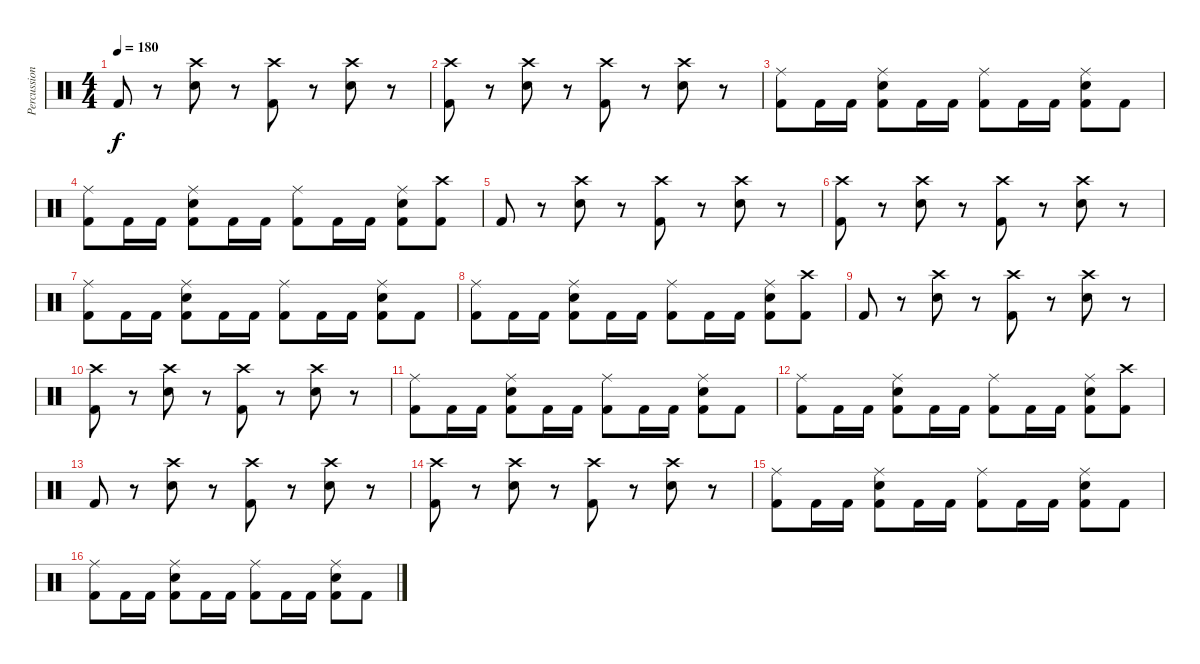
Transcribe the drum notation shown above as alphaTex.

\track ("Percussion" "Percussion") {instrument percussion}
\staff {score}
\articulation defaults
\ts (4 4)
\tempo 180
\clef neutral
\ks c "Kick (hit) 2".8{dy f}
r.8 ("Crash high (hit)" "Snare (hit) 2").8 r.8 ("Crash high (hit)" "Kick (hit) 2").8 r.8 ("Crash high (hit)" "Snare (hit) 2").8 r.8 |
("Crash high (hit)" "Kick (hit) 2").8 r.8 ("Crash high (hit)" "Snare (hit) 2").8 r.8 ("Crash high (hit)" "Kick (hit) 2").8 r.8 ("Crash high (hit)" "Snare (hit) 2").8 r.8 |
("Ride (middle)" "Kick (hit) 2").8 "Kick (hit) 2".16 "Kick (hit) 2".16 ("Ride (middle)" "Snare (hit) 2" "Kick (hit) 2").8 "Kick (hit) 2".16 "Kick (hit) 2".16 ("Ride (middle)" "Kick (hit) 2").8 "Kick (hit) 2".16 "Kick (hit) 2".16 ("Ride (middle)" "Snare (hit) 2" "Kick (hit) 2").8 "Kick (hit) 2".8 |
("Ride (middle)" "Kick (hit) 2").8 "Kick (hit) 2".16 "Kick (hit) 2".16 ("Ride (middle)" "Snare (hit) 2" "Kick (hit) 2").8 "Kick (hit) 2".16 "Kick (hit) 2".16 ("Ride (middle)" "Kick (hit) 2").8 "Kick (hit) 2".16 "Kick (hit) 2".16 ("Ride (middle)" "Snare (hit) 2" "Kick (hit) 2").8 ("Crash high (hit)" "Kick (hit) 2").8 |
"Kick (hit) 2".8 r.8 ("Crash high (hit)" "Snare (hit) 2").8 r.8 ("Crash high (hit)" "Kick (hit) 2").8 r.8 ("Crash high (hit)" "Snare (hit) 2").8 r.8 |
("Crash high (hit)" "Kick (hit) 2").8 r.8 ("Crash high (hit)" "Snare (hit) 2").8 r.8 ("Crash high (hit)" "Kick (hit) 2").8 r.8 ("Crash high (hit)" "Snare (hit) 2").8 r.8 |
("Ride (middle)" "Kick (hit) 2").8 "Kick (hit) 2".16 "Kick (hit) 2".16 ("Ride (middle)" "Snare (hit) 2" "Kick (hit) 2").8 "Kick (hit) 2".16 "Kick (hit) 2".16 ("Ride (middle)" "Kick (hit) 2").8 "Kick (hit) 2".16 "Kick (hit) 2".16 ("Ride (middle)" "Snare (hit) 2" "Kick (hit) 2").8 "Kick (hit) 2".8 |
("Ride (middle)" "Kick (hit) 2").8 "Kick (hit) 2".16 "Kick (hit) 2".16 ("Ride (middle)" "Snare (hit) 2" "Kick (hit) 2").8 "Kick (hit) 2".16 "Kick (hit) 2".16 ("Ride (middle)" "Kick (hit) 2").8 "Kick (hit) 2".16 "Kick (hit) 2".16 ("Ride (middle)" "Snare (hit) 2" "Kick (hit) 2").8 ("Crash high (hit)" "Kick (hit) 2").8 |
"Kick (hit) 2".8 r.8 ("Crash high (hit)" "Snare (hit) 2").8 r.8 ("Crash high (hit)" "Kick (hit) 2").8 r.8 ("Crash high (hit)" "Snare (hit) 2").8 r.8 |
("Crash high (hit)" "Kick (hit) 2").8 r.8 ("Crash high (hit)" "Snare (hit) 2").8 r.8 ("Crash high (hit)" "Kick (hit) 2").8 r.8 ("Crash high (hit)" "Snare (hit) 2").8 r.8 |
("Ride (middle)" "Kick (hit) 2").8 "Kick (hit) 2".16 "Kick (hit) 2".16 ("Ride (middle)" "Snare (hit) 2" "Kick (hit) 2").8 "Kick (hit) 2".16 "Kick (hit) 2".16 ("Ride (middle)" "Kick (hit) 2").8 "Kick (hit) 2".16 "Kick (hit) 2".16 ("Ride (middle)" "Snare (hit) 2" "Kick (hit) 2").8 "Kick (hit) 2".8 |
("Ride (middle)" "Kick (hit) 2").8 "Kick (hit) 2".16 "Kick (hit) 2".16 ("Ride (middle)" "Snare (hit) 2" "Kick (hit) 2").8 "Kick (hit) 2".16 "Kick (hit) 2".16 ("Ride (middle)" "Kick (hit) 2").8 "Kick (hit) 2".16 "Kick (hit) 2".16 ("Ride (middle)" "Snare (hit) 2" "Kick (hit) 2").8 ("Crash high (hit)" "Kick (hit) 2").8 |
"Kick (hit) 2".8 r.8 ("Crash high (hit)" "Snare (hit) 2").8 r.8 ("Crash high (hit)" "Kick (hit) 2").8 r.8 ("Crash high (hit)" "Snare (hit) 2").8 r.8 |
("Crash high (hit)" "Kick (hit) 2").8 r.8 ("Crash high (hit)" "Snare (hit) 2").8 r.8 ("Crash high (hit)" "Kick (hit) 2").8 r.8 ("Crash high (hit)" "Snare (hit) 2").8 r.8 |
("Ride (middle)" "Kick (hit) 2").8 "Kick (hit) 2".16 "Kick (hit) 2".16 ("Ride (middle)" "Snare (hit) 2" "Kick (hit) 2").8 "Kick (hit) 2".16 "Kick (hit) 2".16 ("Ride (middle)" "Kick (hit) 2").8 "Kick (hit) 2".16 "Kick (hit) 2".16 ("Ride (middle)" "Snare (hit) 2" "Kick (hit) 2").8 "Kick (hit) 2".8 |
("Ride (middle)" "Kick (hit) 2").8 "Kick (hit) 2".16 "Kick (hit) 2".16 ("Ride (middle)" "Snare (hit) 2" "Kick (hit) 2").8 "Kick (hit) 2".16 "Kick (hit) 2".16 ("Ride (middle)" "Kick (hit) 2").8 "Kick (hit) 2".16 "Kick (hit) 2".16 ("Ride (middle)" "Snare (hit) 2" "Kick (hit) 2").8 "Kick (hit) 2".8
